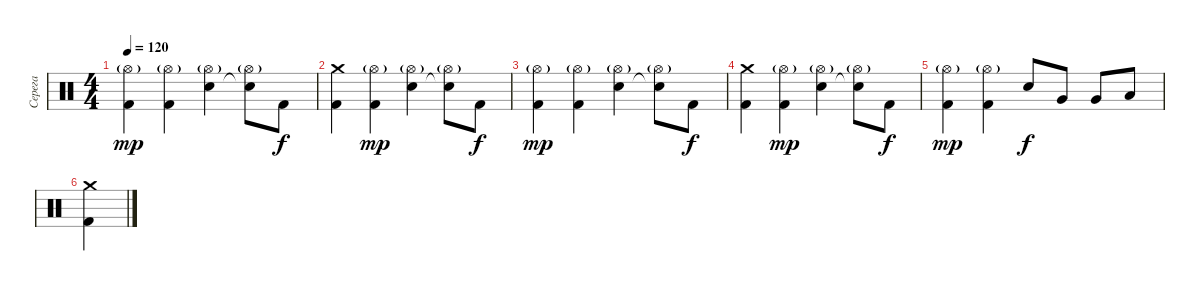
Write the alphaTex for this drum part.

\track ("Серега" "Серега") {instrument percussion}
\staff {score}
\articulation defaults
\ts (4 4)
\tempo 120
\clef neutral
\ks c
("Kick (hit) 2" "Hi-Hat (open)"{g}).4{dy mp} ("Kick (hit) 2" "Hi-Hat (open)"{g}).4 ("Electric Snare (hit)" "Hi-Hat (open)"{g}).4 ("Snare (hit)"{t} "Hi-Hat (open)"{g}).8 "Kick (hit) 2".8{dy f} |
("Kick (hit) 2" "Crash medium (hit)").4 ("Kick (hit) 2" "Hi-Hat (open)"{g}).4{dy mp} ("Electric Snare (hit)" "Hi-Hat (open)"{g}).4 ("Snare (hit)"{t} "Hi-Hat (open)"{g}).8 "Kick (hit) 2".8{dy f} |
("Kick (hit) 2" "Hi-Hat (open)"{g}).4{dy mp} ("Kick (hit) 2" "Hi-Hat (open)"{g}).4 ("Electric Snare (hit)" "Hi-Hat (open)"{g}).4 ("Snare (hit)"{t} "Hi-Hat (open)"{g}).8 "Kick (hit) 2".8{dy f} |
("Kick (hit) 2" "Crash medium (hit)").4 ("Kick (hit) 2" "Hi-Hat (open)"{g}).4{dy mp} ("Electric Snare (hit)" "Hi-Hat (open)"{g}).4 ("Snare (hit)"{t} "Hi-Hat (open)"{g}).8 "Kick (hit) 2".8{dy f} |
("Kick (hit) 2" "Hi-Hat (open)"{g}).4{dy mp} ("Kick (hit) 2" "Hi-Hat (open)"{g}).4 "Electric Snare (hit)".8{dy f} "Very Low Tom (hit)".8 "Very Low Tom (hit)".8 "Low Tom (hit)".8 |
("Kick (hit) 2" "Crash medium (hit)").4
